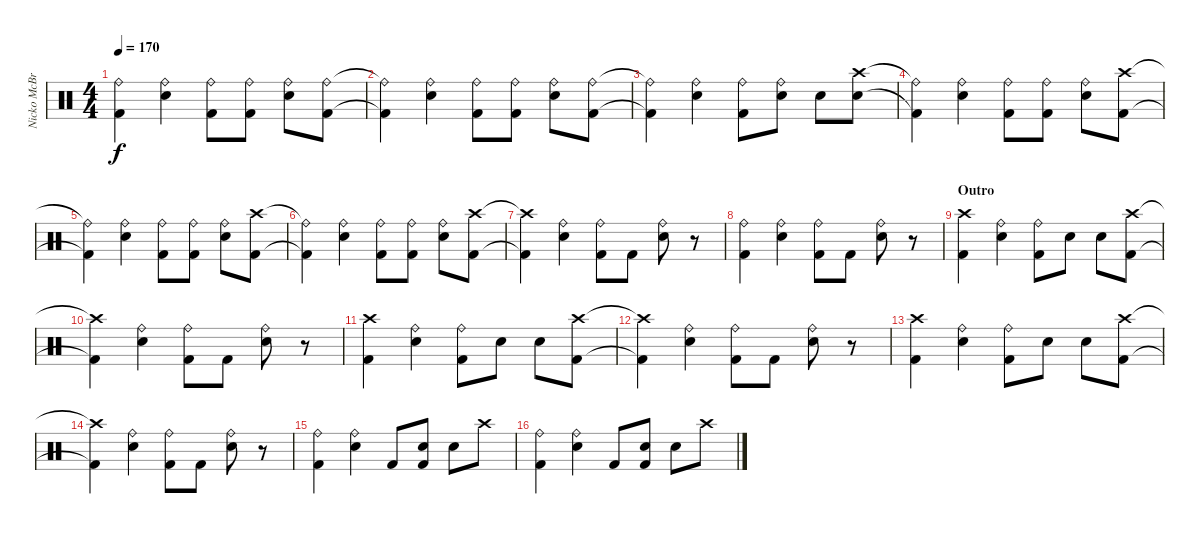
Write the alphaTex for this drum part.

\track ("Nicko McBrain" "Nicko McBr") {instrument percussion}
\staff {score}
\articulation defaults
\ts (4 4)
\tempo 170
\clef neutral
\ks c
("Ride (bell)"{t} "Kick (hit) 2"{t}).4{dy f} ("Ride (bell)" "Snare (hit) 2").4 ("Ride (bell)" "Kick (hit) 2").8 ("Ride (bell)" "Kick (hit) 2").8 ("Ride (bell)" "Snare (hit) 2").8 ("Ride (bell)" "Kick (hit) 2").8 |
("Ride (bell)"{t} "Kick (hit) 2"{t}).4 ("Ride (bell)" "Snare (hit) 2").4 ("Ride (bell)" "Kick (hit) 2").8 ("Ride (bell)" "Kick (hit) 2").8 ("Ride (bell)" "Snare (hit) 2").8 ("Ride (bell)" "Kick (hit) 2").8 |
("Ride (bell)"{t} "Kick (hit) 2"{t}).4 ("Ride (bell)" "Snare (hit) 2").4 ("Ride (bell)" "Kick (hit) 2").8 ("Ride (bell)" "Snare (hit) 2").8 "Snare (hit) 2".8 ("Crash high (hit)" "Snare (hit) 2").8 |
("Ride (bell)"{t} "Kick (hit) 2"{t}).4 ("Ride (bell)" "Snare (hit) 2").4 ("Ride (bell)" "Kick (hit) 2").8 ("Ride (bell)" "Kick (hit) 2").8 ("Ride (bell)" "Snare (hit) 2").8 ("Crash high (hit)" "Kick (hit) 2").8 |
("Ride (bell)"{t} "Kick (hit) 2"{t}).4 ("Ride (bell)" "Snare (hit) 2").4 ("Ride (bell)" "Kick (hit) 2").8 ("Ride (bell)" "Kick (hit) 2").8 ("Ride (bell)" "Snare (hit) 2").8 ("Crash high (hit)" "Kick (hit) 2").8 |
("Ride (bell)"{t} "Kick (hit) 2"{t}).4 ("Ride (bell)" "Snare (hit) 2").4 ("Ride (bell)" "Kick (hit) 2").8 ("Ride (bell)" "Kick (hit) 2").8 ("Ride (bell)" "Snare (hit) 2").8 ("Crash high (hit)" "Kick (hit) 2").8 |
("Crash high (hit)"{t} "Kick (hit) 2"{t}).4 ("Ride (bell)" "Snare (hit) 2").4 ("Ride (bell)" "Kick (hit) 2").8 "Kick (hit) 2".8 ("Ride (bell)" "Snare (hit) 2").8 r.8 |
("Ride (bell)" "Kick (hit) 2").4 ("Ride (bell)" "Snare (hit) 2").4 ("Ride (bell)" "Kick (hit) 2").8 "Kick (hit) 2".8 ("Ride (bell)" "Snare (hit) 2").8 r.8 |
\section ("" "Outro")
("Crash high (hit)" "Kick (hit) 2").4 ("Ride (bell)" "Snare (hit) 2").4 ("Ride (bell)" "Kick (hit) 2").8 "Snare (hit) 2".8 "Snare (hit) 2".8 ("Crash high (hit)" "Kick (hit) 2").8 |
("Crash high (hit)"{t} "Kick (hit) 2"{t}).4 ("Ride (bell)" "Snare (hit) 2").4 ("Ride (bell)" "Kick (hit) 2").8 "Kick (hit) 2".8 ("Ride (bell)" "Snare (hit) 2").8 r.8 |
("Crash high (hit)" "Kick (hit) 2").4 ("Ride (bell)" "Snare (hit) 2").4 ("Ride (bell)" "Kick (hit) 2").8 "Snare (hit) 2".8 "Snare (hit) 2".8 ("Crash high (hit)" "Kick (hit) 2").8 |
("Crash high (hit)"{t} "Kick (hit) 2"{t}).4 ("Ride (bell)" "Snare (hit) 2").4 ("Ride (bell)" "Kick (hit) 2").8 "Kick (hit) 2".8 ("Ride (bell)" "Snare (hit) 2").8 r.8 |
("Crash high (hit)" "Kick (hit) 2").4 ("Ride (bell)" "Snare (hit) 2").4 ("Ride (bell)" "Kick (hit) 2").8 "Snare (hit) 2".8 "Snare (hit) 2".8 ("Crash high (hit)" "Kick (hit) 2").8 |
("Crash high (hit)"{t} "Kick (hit) 2"{t}).4 ("Ride (bell)" "Snare (hit) 2").4 ("Ride (bell)" "Kick (hit) 2").8 "Kick (hit) 2".8 ("Ride (bell)" "Snare (hit) 2").8 r.8 |
("Ride (bell)" "Kick (hit) 2").4 ("Ride (bell)" "Snare (hit) 2").4 "Kick (hit) 2".8 ("Snare (hit) 2" "Kick (hit) 2").8 "Snare (hit) 2".8 "Crash high (hit)".8 |
("Ride (bell)" "Kick (hit) 2").4 ("Ride (bell)" "Snare (hit) 2").4 "Kick (hit) 2".8 ("Snare (hit) 2" "Kick (hit) 2").8 "Snare (hit) 2".8 "Crash high (hit)".8
